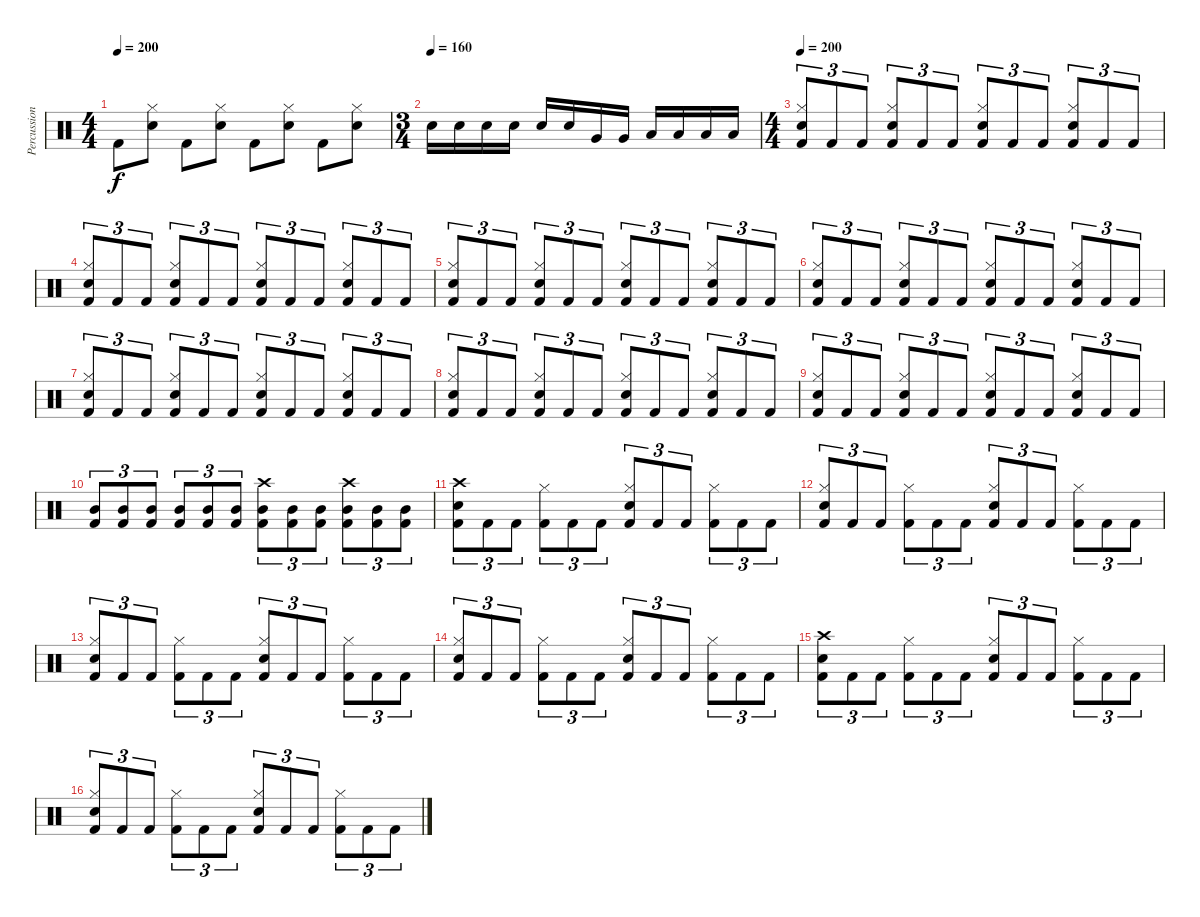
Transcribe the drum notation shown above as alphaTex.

\track ("Percussion" "Percussion") {instrument percussion}
\staff {score}
\articulation defaults
\ts (4 4)
\tempo 200
\clef neutral
\ks c "Kick (hit) 2".8{dy f}
("Hi-Hat (closed)" "Snare (hit) 2").8 "Kick (hit) 2".8 ("Hi-Hat (closed)" "Snare (hit) 2").8 "Kick (hit) 2".8 ("Hi-Hat (closed)" "Snare (hit) 2").8 "Kick (hit) 2".8 ("Hi-Hat (closed)" "Snare (hit) 2").8 |
\ts (3 4)
\tempo (160)
"Snare (hit) 2".16 "Snare (hit) 2".16 "Snare (hit) 2".16 "Snare (hit) 2".16 "Snare (hit) 2".16 "Snare (hit) 2".16 "Very Low Tom (hit)".16 "Very Low Tom (hit)".16 "Low Tom (hit)".16 "Low Tom (hit)".16 "Low Tom (hit)".16 "Low Tom (hit)".16 |
\ts (4 4)
\tempo 200
("Hi-Hat (closed)" "Snare (hit) 2" "Kick (hit) 2").8{tu (3 2)} "Kick (hit) 2".8{tu (3 2)} "Kick (hit) 2".8{tu (3 2)} ("Hi-Hat (closed)" "Snare (hit) 2" "Kick (hit) 2").8{tu (3 2)} "Kick (hit) 2".8{tu (3 2)} "Kick (hit) 2".8{tu (3 2)} ("Hi-Hat (closed)" "Snare (hit) 2" "Kick (hit) 2").8{tu (3 2)} "Kick (hit) 2".8{tu (3 2)} "Kick (hit) 2".8{tu (3 2)} ("Hi-Hat (closed)" "Snare (hit) 2" "Kick (hit) 2").8{tu (3 2)} "Kick (hit) 2".8{tu (3 2)} "Kick (hit) 2".8{tu (3 2)} |
("Hi-Hat (closed)" "Snare (hit) 2" "Kick (hit) 2").8{tu (3 2)} "Kick (hit) 2".8{tu (3 2)} "Kick (hit) 2".8{tu (3 2)} ("Hi-Hat (closed)" "Snare (hit) 2" "Kick (hit) 2").8{tu (3 2)} "Kick (hit) 2".8{tu (3 2)} "Kick (hit) 2".8{tu (3 2)} ("Hi-Hat (closed)" "Snare (hit) 2" "Kick (hit) 2").8{tu (3 2)} "Kick (hit) 2".8{tu (3 2)} "Kick (hit) 2".8{tu (3 2)} ("Hi-Hat (closed)" "Snare (hit) 2" "Kick (hit) 2").8{tu (3 2)} "Kick (hit) 2".8{tu (3 2)} "Kick (hit) 2".8{tu (3 2)} |
("Hi-Hat (closed)" "Snare (hit) 2" "Kick (hit) 2").8{tu (3 2)} "Kick (hit) 2".8{tu (3 2)} "Kick (hit) 2".8{tu (3 2)} ("Hi-Hat (closed)" "Snare (hit) 2" "Kick (hit) 2").8{tu (3 2)} "Kick (hit) 2".8{tu (3 2)} "Kick (hit) 2".8{tu (3 2)} ("Hi-Hat (closed)" "Snare (hit) 2" "Kick (hit) 2").8{tu (3 2)} "Kick (hit) 2".8{tu (3 2)} "Kick (hit) 2".8{tu (3 2)} ("Hi-Hat (closed)" "Snare (hit) 2" "Kick (hit) 2").8{tu (3 2)} "Kick (hit) 2".8{tu (3 2)} "Kick (hit) 2".8{tu (3 2)} |
("Hi-Hat (closed)" "Snare (hit) 2" "Kick (hit) 2").8{tu (3 2)} "Kick (hit) 2".8{tu (3 2)} "Kick (hit) 2".8{tu (3 2)} ("Hi-Hat (closed)" "Snare (hit) 2" "Kick (hit) 2").8{tu (3 2)} "Kick (hit) 2".8{tu (3 2)} "Kick (hit) 2".8{tu (3 2)} ("Hi-Hat (closed)" "Snare (hit) 2" "Kick (hit) 2").8{tu (3 2)} "Kick (hit) 2".8{tu (3 2)} "Kick (hit) 2".8{tu (3 2)} ("Hi-Hat (closed)" "Snare (hit) 2" "Kick (hit) 2").8{tu (3 2)} "Kick (hit) 2".8{tu (3 2)} "Kick (hit) 2".8{tu (3 2)} |
("Hi-Hat (closed)" "Snare (hit) 2" "Kick (hit) 2").8{tu (3 2)} "Kick (hit) 2".8{tu (3 2)} "Kick (hit) 2".8{tu (3 2)} ("Hi-Hat (closed)" "Snare (hit) 2" "Kick (hit) 2").8{tu (3 2)} "Kick (hit) 2".8{tu (3 2)} "Kick (hit) 2".8{tu (3 2)} ("Hi-Hat (closed)" "Snare (hit) 2" "Kick (hit) 2").8{tu (3 2)} "Kick (hit) 2".8{tu (3 2)} "Kick (hit) 2".8{tu (3 2)} ("Hi-Hat (closed)" "Snare (hit) 2" "Kick (hit) 2").8{tu (3 2)} "Kick (hit) 2".8{tu (3 2)} "Kick (hit) 2".8{tu (3 2)} |
("Hi-Hat (closed)" "Snare (hit) 2" "Kick (hit) 2").8{tu (3 2)} "Kick (hit) 2".8{tu (3 2)} "Kick (hit) 2".8{tu (3 2)} ("Hi-Hat (closed)" "Snare (hit) 2" "Kick (hit) 2").8{tu (3 2)} "Kick (hit) 2".8{tu (3 2)} "Kick (hit) 2".8{tu (3 2)} ("Hi-Hat (closed)" "Snare (hit) 2" "Kick (hit) 2").8{tu (3 2)} "Kick (hit) 2".8{tu (3 2)} "Kick (hit) 2".8{tu (3 2)} ("Hi-Hat (closed)" "Snare (hit) 2" "Kick (hit) 2").8{tu (3 2)} "Kick (hit) 2".8{tu (3 2)} "Kick (hit) 2".8{tu (3 2)} |
("Hi-Hat (closed)" "Snare (hit) 2" "Kick (hit) 2").8{tu (3 2)} "Kick (hit) 2".8{tu (3 2)} "Kick (hit) 2".8{tu (3 2)} ("Hi-Hat (closed)" "Snare (hit) 2" "Kick (hit) 2").8{tu (3 2)} "Kick (hit) 2".8{tu (3 2)} "Kick (hit) 2".8{tu (3 2)} ("Hi-Hat (closed)" "Snare (hit) 2" "Kick (hit) 2").8{tu (3 2)} "Kick (hit) 2".8{tu (3 2)} "Kick (hit) 2".8{tu (3 2)} ("Hi-Hat (closed)" "Snare (hit) 2" "Kick (hit) 2").8{tu (3 2)} "Kick (hit) 2".8{tu (3 2)} "Kick (hit) 2".8{tu (3 2)} |
("Mid Tom (hit)" "Kick (hit) 2").8{tu (3 2)} ("Mid Tom (hit)" "Kick (hit) 2").8{tu (3 2)} ("Mid Tom (hit)" "Kick (hit) 2").8{tu (3 2)} ("Mid Tom (hit)" "Kick (hit) 2").8{tu (3 2)} ("Mid Tom (hit)" "Kick (hit) 2").8{tu (3 2)} ("Mid Tom (hit)" "Kick (hit) 2").8{tu (3 2)} ("Crash high (hit)" "Mid Tom (hit)" "Kick (hit) 2").8{tu (3 2)} ("Mid Tom (hit)" "Kick (hit) 2").8{tu (3 2)} ("Mid Tom (hit)" "Kick (hit) 2").8{tu (3 2)} ("Crash high (hit)" "Mid Tom (hit)" "Kick (hit) 2").8{tu (3 2)} ("Mid Tom (hit)" "Kick (hit) 2").8{tu (3 2)} ("Mid Tom (hit)" "Kick (hit) 2").8{tu (3 2)} |
("Crash high (hit)" "Snare (hit) 2" "Kick (hit) 2").8{tu (3 2)} "Kick (hit) 2".8{tu (3 2)} "Kick (hit) 2".8{tu (3 2)} ("Hi-Hat (closed)" "Kick (hit) 2").8{tu (3 2)} "Kick (hit) 2".8{tu (3 2)} "Kick (hit) 2".8{tu (3 2)} ("Hi-Hat (closed)" "Snare (hit) 2" "Kick (hit) 2").8{tu (3 2)} "Kick (hit) 2".8{tu (3 2)} "Kick (hit) 2".8{tu (3 2)} ("Hi-Hat (closed)" "Kick (hit) 2").8{tu (3 2)} "Kick (hit) 2".8{tu (3 2)} "Kick (hit) 2".8{tu (3 2)} |
("Hi-Hat (closed)" "Snare (hit) 2" "Kick (hit) 2").8{tu (3 2)} "Kick (hit) 2".8{tu (3 2)} "Kick (hit) 2".8{tu (3 2)} ("Hi-Hat (closed)" "Kick (hit) 2").8{tu (3 2)} "Kick (hit) 2".8{tu (3 2)} "Kick (hit) 2".8{tu (3 2)} ("Hi-Hat (closed)" "Snare (hit) 2" "Kick (hit) 2").8{tu (3 2)} "Kick (hit) 2".8{tu (3 2)} "Kick (hit) 2".8{tu (3 2)} ("Hi-Hat (closed)" "Kick (hit) 2").8{tu (3 2)} "Kick (hit) 2".8{tu (3 2)} "Kick (hit) 2".8{tu (3 2)} |
("Hi-Hat (closed)" "Snare (hit) 2" "Kick (hit) 2").8{tu (3 2)} "Kick (hit) 2".8{tu (3 2)} "Kick (hit) 2".8{tu (3 2)} ("Hi-Hat (closed)" "Kick (hit) 2").8{tu (3 2)} "Kick (hit) 2".8{tu (3 2)} "Kick (hit) 2".8{tu (3 2)} ("Hi-Hat (closed)" "Snare (hit) 2" "Kick (hit) 2").8{tu (3 2)} "Kick (hit) 2".8{tu (3 2)} "Kick (hit) 2".8{tu (3 2)} ("Hi-Hat (closed)" "Kick (hit) 2").8{tu (3 2)} "Kick (hit) 2".8{tu (3 2)} "Kick (hit) 2".8{tu (3 2)} |
("Hi-Hat (closed)" "Snare (hit) 2" "Kick (hit) 2").8{tu (3 2)} "Kick (hit) 2".8{tu (3 2)} "Kick (hit) 2".8{tu (3 2)} ("Hi-Hat (closed)" "Kick (hit) 2").8{tu (3 2)} "Kick (hit) 2".8{tu (3 2)} "Kick (hit) 2".8{tu (3 2)} ("Hi-Hat (closed)" "Snare (hit) 2" "Kick (hit) 2").8{tu (3 2)} "Kick (hit) 2".8{tu (3 2)} "Kick (hit) 2".8{tu (3 2)} ("Hi-Hat (closed)" "Kick (hit) 2").8{tu (3 2)} "Kick (hit) 2".8{tu (3 2)} "Kick (hit) 2".8{tu (3 2)} |
("Crash high (hit)" "Snare (hit) 2" "Kick (hit) 2").8{tu (3 2)} "Kick (hit) 2".8{tu (3 2)} "Kick (hit) 2".8{tu (3 2)} ("Hi-Hat (closed)" "Kick (hit) 2").8{tu (3 2)} "Kick (hit) 2".8{tu (3 2)} "Kick (hit) 2".8{tu (3 2)} ("Hi-Hat (closed)" "Snare (hit) 2" "Kick (hit) 2").8{tu (3 2)} "Kick (hit) 2".8{tu (3 2)} "Kick (hit) 2".8{tu (3 2)} ("Hi-Hat (closed)" "Kick (hit) 2").8{tu (3 2)} "Kick (hit) 2".8{tu (3 2)} "Kick (hit) 2".8{tu (3 2)} |
("Hi-Hat (closed)" "Snare (hit) 2" "Kick (hit) 2").8{tu (3 2)} "Kick (hit) 2".8{tu (3 2)} "Kick (hit) 2".8{tu (3 2)} ("Hi-Hat (closed)" "Kick (hit) 2").8{tu (3 2)} "Kick (hit) 2".8{tu (3 2)} "Kick (hit) 2".8{tu (3 2)} ("Hi-Hat (closed)" "Snare (hit) 2" "Kick (hit) 2").8{tu (3 2)} "Kick (hit) 2".8{tu (3 2)} "Kick (hit) 2".8{tu (3 2)} ("Hi-Hat (closed)" "Kick (hit) 2").8{tu (3 2)} "Kick (hit) 2".8{tu (3 2)} "Kick (hit) 2".8{tu (3 2)}
